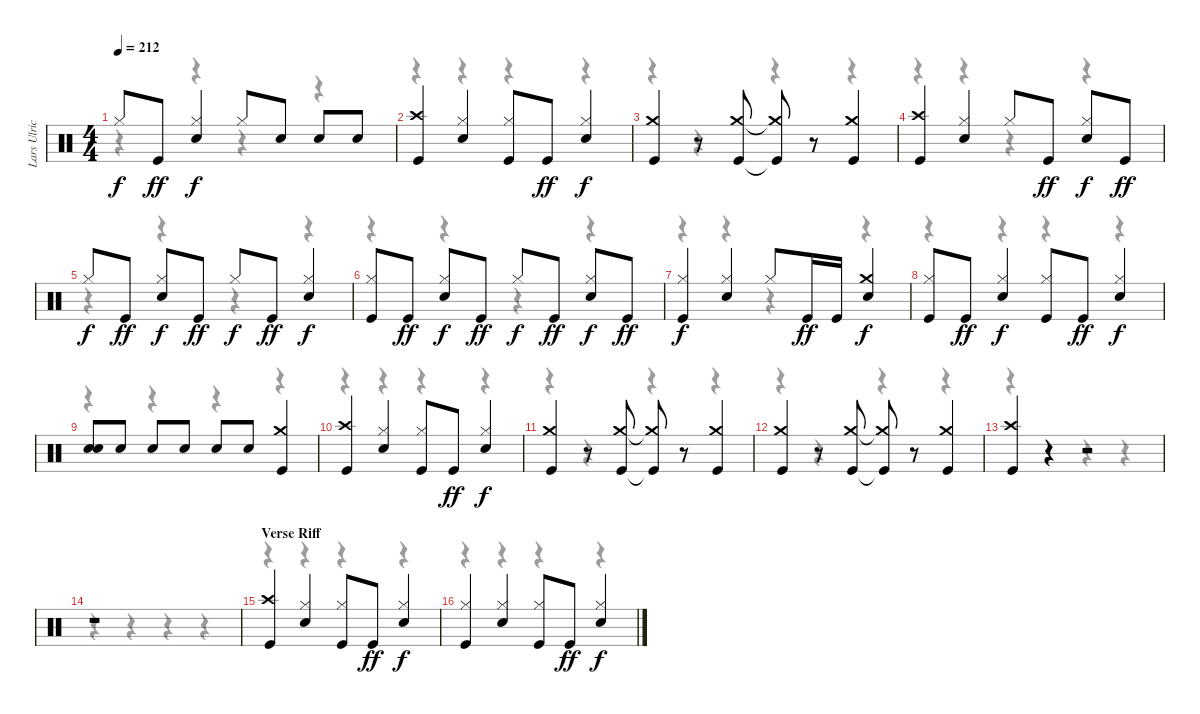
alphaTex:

\track ("Lars Ulrich" "Lars Ulric") {instrument percussion}
\staff {score}
\articulation defaults
\voice
\ts (4 4)
\tempo 212
\clef neutral
\ks c "Hi-Hat (closed)".8{dy f} "Kick (hit)".8{dy ff}
("Hi-Hat (closed)" "Snare (hit) 2").4{dy f} "Hi-Hat (closed)".8 "Snare (hit) 2".8 "Snare (hit) 2".8 "Snare (hit) 2".8 |
("Crash high (hit)" "Kick (hit)").4 ("Hi-Hat (closed)" "Snare (hit) 2").4 ("Hi-Hat (closed)" "Kick (hit)").8 "Kick (hit)".8{dy ff} ("Hi-Hat (closed)" "Snare (hit) 2").4{dy f} |
("Crash medium (hit)" "Kick (hit)").4 r.8 ("Crash medium (hit)" "Kick (hit)").8 ("Crash medium (hit)"{t} "Kick (hit)"{t}).8 r.8 ("Crash medium (hit)" "Kick (hit)").4 |
("Crash high (hit)" "Kick (hit)").4 ("Hi-Hat (closed)" "Snare (hit) 2").4 "Hi-Hat (closed)".8 "Kick (hit)".8{dy ff} ("Hi-Hat (closed)" "Snare (hit) 2").8{dy f} "Kick (hit)".8{dy ff} |
"Hi-Hat (closed)".8{dy f} "Kick (hit)".8{dy ff} ("Hi-Hat (closed)" "Snare (hit) 2").8{dy f} "Kick (hit)".8{dy ff} "Hi-Hat (closed)".8{dy f} "Kick (hit)".8{dy ff} ("Hi-Hat (closed)" "Snare (hit) 2").4{dy f} |
("Hi-Hat (closed)" "Kick (hit)").8 "Kick (hit)".8{dy ff} ("Hi-Hat (closed)" "Snare (hit) 2").8{dy f} "Kick (hit)".8{dy ff} "Hi-Hat (closed)".8{dy f} "Kick (hit)".8{dy ff} ("Hi-Hat (closed)" "Snare (hit) 2").8{dy f} "Kick (hit)".8{dy ff} |
("Hi-Hat (closed)" "Kick (hit)").4{dy f} ("Hi-Hat (closed)" "Snare (hit) 2").4 "Hi-Hat (closed)".8 "Kick (hit)".16{dy ff} "Kick (hit)".16 ("Crash medium (hit)" "Snare (hit) 2").4{dy f} |
("Hi-Hat (closed)" "Kick (hit)").8 "Kick (hit)".8{dy ff} ("Hi-Hat (closed)" "Snare (hit) 2").4{dy f} ("Hi-Hat (closed)" "Kick (hit)").8 "Kick (hit)".8{dy ff} ("Hi-Hat (closed)" "Snare (hit) 2").4{dy f} |
("Snare (hit) 2" "Snare (hit) 2").8 "Snare (hit) 2".8 "Snare (hit) 2".8 "Snare (hit) 2".8 "Snare (hit) 2".8 "Snare (hit) 2".8 ("Crash medium (hit)" "Kick (hit)").4 |
("Crash high (hit)" "Kick (hit)").4 ("Hi-Hat (closed)" "Snare (hit) 2").4 ("Hi-Hat (closed)" "Kick (hit)").8 "Kick (hit)".8{dy ff} ("Hi-Hat (closed)" "Snare (hit) 2").4{dy f} |
("Crash medium (hit)" "Kick (hit)").4 r.8 ("Crash medium (hit)" "Kick (hit)").8 ("Crash medium (hit)"{t} "Kick (hit)"{t}).8 r.8 ("Crash medium (hit)" "Kick (hit)").4 |
("Crash medium (hit)" "Kick (hit)").4 r.8 ("Crash medium (hit)" "Kick (hit)").8 ("Crash medium (hit)"{t} "Kick (hit)"{t}).8 r.8 ("Crash medium (hit)" "Kick (hit)").4 |
("Crash high (hit)" "Kick (hit)").4 r.4 r.2 |
r.1 |
\section ("" "Verse Riff")
("Crash high (hit)" "Kick (hit)").4 ("Hi-Hat (closed)" "Snare (hit) 2").4 ("Hi-Hat (closed)" "Kick (hit)").8 "Kick (hit)".8{dy ff} ("Hi-Hat (closed)" "Snare (hit) 2").4{dy f} |
("Hi-Hat (closed)" "Kick (hit)").4 ("Hi-Hat (closed)" "Snare (hit) 2").4 ("Hi-Hat (closed)" "Kick (hit)").8 "Kick (hit)".8{dy ff} ("Hi-Hat (closed)" "Snare (hit) 2").4{dy f}
\voice
\clef neutral
\ottava regular
\simile none
\ks c
r.4{dy f} r.4 r.4 r.4 |
r.4 r.4 r.4 r.4 |
r.4 r.4 r.4 r.4 |
r.4 r.4 r.4 r.4 |
r.4 r.4 r.4 r.4 |
r.4 r.4 r.4 r.4 |
r.4 r.4 r.4 r.4 |
r.4 r.4 r.4 r.4 |
r.4 r.4 r.4 r.4 |
r.4 r.4 r.4 r.4 |
r.4 r.4 r.4 r.4 |
r.4 r.4 r.4 r.4 |
r.4 r.4 r.4 r.4 |
r.4 r.4 r.4 r.4 |
r.4 r.4 r.4 r.4 |
r.4 r.4 r.4 r.4
